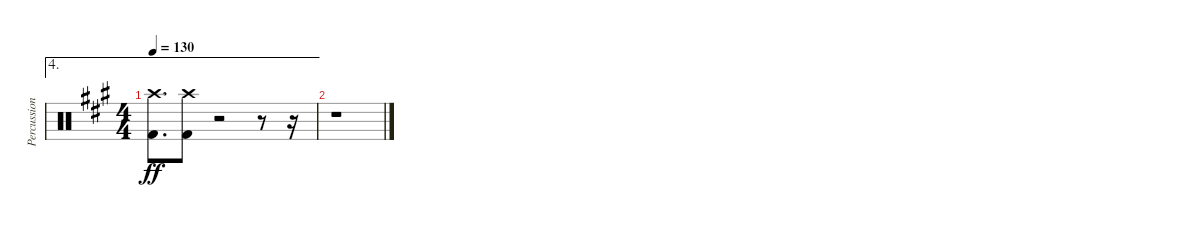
\track ("Percussion" "Percussion") {instrument percussion}
\staff {score}
\articulation defaults
\ae 4
\ts (4 4)
\tempo 130
\clef neutral
\ks a
("Crash high (hit)" "Kick (hit) 2").8{d dy ff} ("Crash high (hit)" "Kick (hit) 2").8 r.2 r.8 r.16 |
r.1
